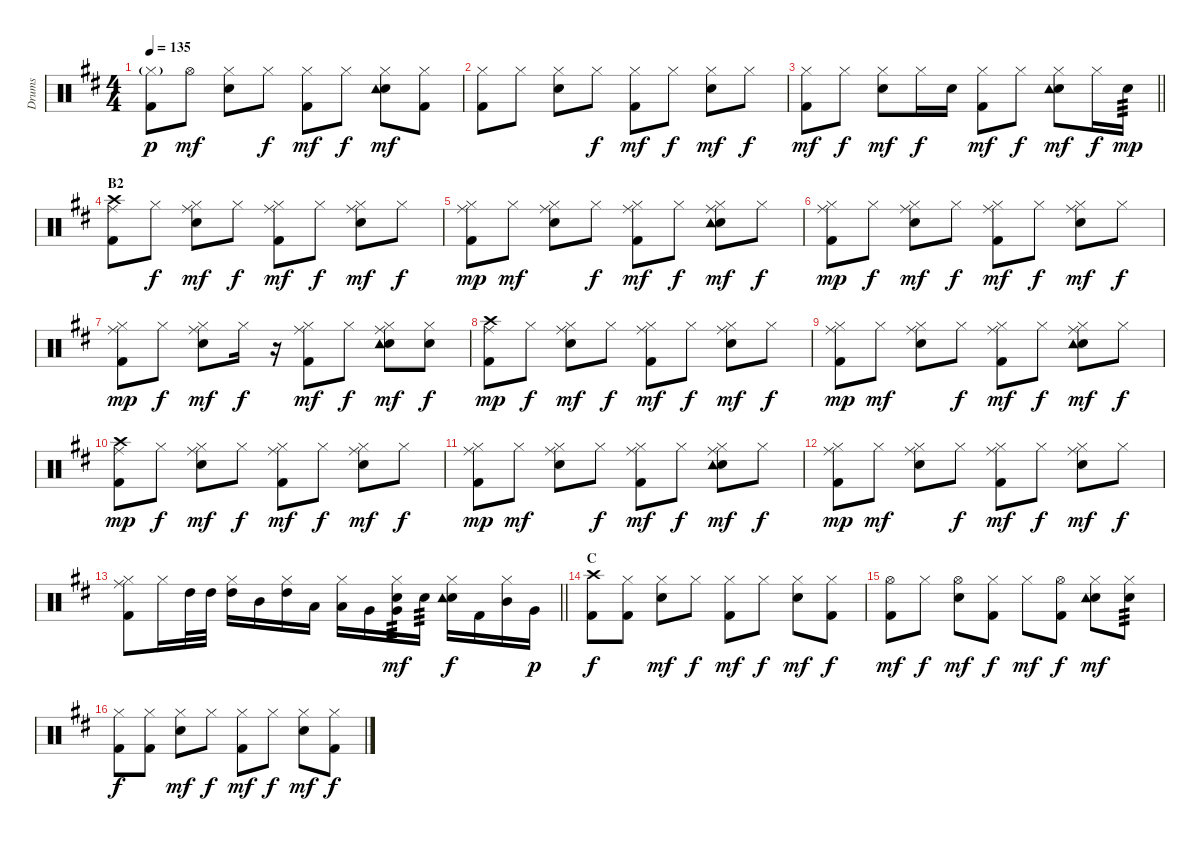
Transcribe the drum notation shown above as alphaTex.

\track ("Drums" "Drums") {instrument percussion}
\staff {score}
\articulation defaults
\ts (4 4)
\tempo 135
\clef neutral
\ks d
("Hi-Hat (closed)"{g} "Kick (hit) 2").8{dy p} "Hi-Hat (open)".8{dy mf} ("Hi-Hat (closed)" "Electric Snare (hit)").8 "Hi-Hat (closed)".8{dy f} ("Hi-Hat (closed)" "Kick (hit) 2").8{dy mf} "Hi-Hat (closed)".8{dy f} ("Hi-Hat (closed)" "Electric Snare (hit)" "Tambourine (hit)").8{dy mf} ("Hi-Hat (closed)" "Kick (hit) 2").8 |
("Hi-Hat (closed)" "Kick (hit) 2").8 "Hi-Hat (closed)".8 ("Hi-Hat (closed)" "Electric Snare (hit)").8 "Hi-Hat (closed)".8{dy f} ("Hi-Hat (closed)" "Kick (hit) 2").8{dy mf} "Hi-Hat (closed)".8{dy f} ("Hi-Hat (closed)" "Electric Snare (hit)").8{dy mf} "Hi-Hat (closed)".8{dy f} |
\barLineRight lightlight
("Hi-Hat (closed)" "Kick (hit) 2").8{dy mf} "Hi-Hat (closed)".8{dy f} ("Hi-Hat (closed)" "Electric Snare (hit)").8{dy mf} "Hi-Hat (closed)".16{dy f} "Electric Snare (hit)".16 ("Hi-Hat (closed)" "Kick (hit) 2").8{dy mf} "Hi-Hat (closed)".8{dy f} ("Hi-Hat (closed)" "Electric Snare (hit)" "Tambourine (hit)").8{dy mf} "Hi-Hat (closed)".16{dy f} "Electric Snare (hit)".16{tp 3 dy mp} |
\section ("" "B2")
("Ride (middle)" "Crash high (hit)" "Kick (hit) 2").8 "Hi-Hat (closed)".8{dy f} ("Ride (middle)" "Hi-Hat (closed)" "Electric Snare (hit)").8{dy mf} "Hi-Hat (closed)".8{dy f} ("Ride (middle)" "Hi-Hat (closed)" "Kick (hit) 2").8{dy mf} "Hi-Hat (closed)".8{dy f} ("Ride (middle)" "Hi-Hat (closed)" "Electric Snare (hit)").8{dy mf} "Hi-Hat (closed)".8{dy f} |
("Ride (middle)" "Hi-Hat (closed)" "Kick (hit) 2").8{dy mp} "Hi-Hat (closed)".8{dy mf} ("Ride (middle)" "Hi-Hat (closed)" "Electric Snare (hit)").8 "Hi-Hat (closed)".8{dy f} ("Ride (middle)" "Hi-Hat (closed)" "Kick (hit) 2").8{dy mf} "Hi-Hat (closed)".8{dy f} ("Ride (middle)" "Hi-Hat (closed)" "Electric Snare (hit)" "Tambourine (hit)").8{dy mf} "Hi-Hat (closed)".8{dy f} |
("Ride (middle)" "Hi-Hat (closed)" "Kick (hit) 2").8{dy mp} "Hi-Hat (closed)".8{dy f} ("Ride (middle)" "Hi-Hat (closed)" "Electric Snare (hit)").8{dy mf} "Hi-Hat (closed)".8{dy f} ("Ride (middle)" "Hi-Hat (closed)" "Kick (hit) 2").8{dy mf} "Hi-Hat (closed)".8{dy f} ("Ride (middle)" "Hi-Hat (closed)" "Electric Snare (hit)").8{dy mf} "Hi-Hat (closed)".8{dy f} |
("Ride (middle)" "Hi-Hat (closed)" "Kick (hit) 2").8{dy mp} "Hi-Hat (closed)".8{dy f} ("Ride (middle)" "Hi-Hat (closed)" "Electric Snare (hit)").8{dy mf} "Hi-Hat (closed)".16{dy f} r.16 ("Ride (middle)" "Hi-Hat (closed)" "Kick (hit) 2").8{dy mf} "Hi-Hat (closed)".8{dy f} ("Ride (middle)" "Hi-Hat (closed)" "Electric Snare (hit)" "Tambourine (hit)").8{dy mf} ("Hi-Hat (closed)" "Electric Snare (hit)").8{dy f} |
("Ride (middle)" "Crash high (hit)" "Kick (hit) 2").8{dy mp} "Hi-Hat (closed)".8{dy f} ("Ride (middle)" "Hi-Hat (closed)" "Electric Snare (hit)").8{dy mf} "Hi-Hat (closed)".8{dy f} ("Ride (middle)" "Hi-Hat (closed)" "Kick (hit) 2").8{dy mf} "Hi-Hat (closed)".8{dy f} ("Ride (middle)" "Hi-Hat (closed)" "Electric Snare (hit)").8{dy mf} "Hi-Hat (closed)".8{dy f} |
("Ride (middle)" "Hi-Hat (closed)" "Kick (hit) 2").8{dy mp} "Hi-Hat (closed)".8{dy mf} ("Ride (middle)" "Hi-Hat (closed)" "Electric Snare (hit)").8 "Hi-Hat (closed)".8{dy f} ("Ride (middle)" "Hi-Hat (closed)" "Kick (hit) 2").8{dy mf} "Hi-Hat (closed)".8{dy f} ("Ride (middle)" "Hi-Hat (closed)" "Electric Snare (hit)" "Tambourine (hit)").8{dy mf} "Hi-Hat (closed)".8{dy f} |
("Ride (middle)" "Crash high (hit)" "Kick (hit) 2").8{dy mp} "Hi-Hat (closed)".8{dy f} ("Ride (middle)" "Hi-Hat (closed)" "Electric Snare (hit)").8{dy mf} "Hi-Hat (closed)".8{dy f} ("Ride (middle)" "Hi-Hat (closed)" "Kick (hit) 2").8{dy mf} "Hi-Hat (closed)".8{dy f} ("Ride (middle)" "Hi-Hat (closed)" "Electric Snare (hit)").8{dy mf} "Hi-Hat (closed)".8{dy f} |
("Ride (middle)" "Hi-Hat (closed)" "Kick (hit) 2").8{dy mp} "Hi-Hat (closed)".8{dy mf} ("Ride (middle)" "Hi-Hat (closed)" "Electric Snare (hit)").8 "Hi-Hat (closed)".8{dy f} ("Ride (middle)" "Hi-Hat (closed)" "Kick (hit) 2").8{dy mf} "Hi-Hat (closed)".8{dy f} ("Ride (middle)" "Hi-Hat (closed)" "Electric Snare (hit)" "Tambourine (hit)").8{dy mf} "Hi-Hat (closed)".8{dy f} |
("Ride (middle)" "Hi-Hat (closed)" "Kick (hit) 2").8{dy mp} "Hi-Hat (closed)".8{dy mf} ("Ride (middle)" "Hi-Hat (closed)" "Electric Snare (hit)").8 "Hi-Hat (closed)".8{dy f} ("Ride (middle)" "Hi-Hat (closed)" "Kick (hit) 2").8{dy mf} "Hi-Hat (closed)".8{dy f} ("Ride (middle)" "Hi-Hat (closed)" "Electric Snare (hit)").8{dy mf} "Hi-Hat (closed)".8{dy f} |
\barLineRight lightlight
("Ride (middle)" "Hi-Hat (closed)" "Kick (hit) 2").8 "Hi-Hat (closed)".16 "High Tom (hit)".32 "High Tom (hit)".32 ("Hi-Hat (closed)" "High Tom (hit)").16 "Mid Tom (hit)".16 ("Hi-Hat (closed)" "High Tom (hit)").16 "Low Tom (hit)".16 ("Hi-Hat (closed)" "Low Tom (hit)").16 "Very Low Tom (hit)".16 ("Hi-Hat (closed)" "Very Low Tom (hit)" "Electric Snare (hit)").16{tp 3 dy mf} "Electric Snare (hit)".16{tp 3} ("Hi-Hat (closed)" "Electric Snare (hit)" "Tambourine (hit)").16{dy f} "Kick (hit) 2".16 ("Hi-Hat (closed)" "Mid Tom (hit)").16 "Very Low Tom (hit)".16{dy p} |
\section ("" "C")
("Crash high (hit)" "Kick (hit) 2").8{dy f} ("Hi-Hat (closed)" "Kick (hit) 2").8 ("Hi-Hat (closed)" "Electric Snare (hit)").8{dy mf} "Hi-Hat (closed)".8{dy f} ("Hi-Hat (closed)" "Kick (hit) 2").8{dy mf} "Hi-Hat (closed)".8{dy f} ("Hi-Hat (closed)" "Electric Snare (hit)").8{dy mf} ("Hi-Hat (closed)" "Kick (hit) 2").8{dy f} |
("Hi-Hat (open)" "Kick (hit) 2").8{dy mf} "Hi-Hat (closed)".8{dy f} ("Hi-Hat (open)" "Electric Snare (hit)").8{dy mf} ("Hi-Hat (closed)" "Kick (hit) 2").8{dy f} "Hi-Hat (closed)".8{dy mf} ("Hi-Hat (open)" "Kick (hit) 2").8{dy f} ("Hi-Hat (closed)" "Electric Snare (hit)" "Tambourine (hit)").8{dy mf} ("Hi-Hat (closed)" "Electric Snare (hit)").8{tp 3} |
("Hi-Hat (closed)" "Kick (hit) 2").8{dy f} ("Hi-Hat (closed)" "Kick (hit) 2").8 ("Hi-Hat (closed)" "Electric Snare (hit)").8{dy mf} "Hi-Hat (closed)".8{dy f} ("Hi-Hat (closed)" "Kick (hit) 2").8{dy mf} "Hi-Hat (closed)".8{dy f} ("Hi-Hat (closed)" "Electric Snare (hit)").8{dy mf} ("Hi-Hat (closed)" "Kick (hit) 2").8{dy f}
